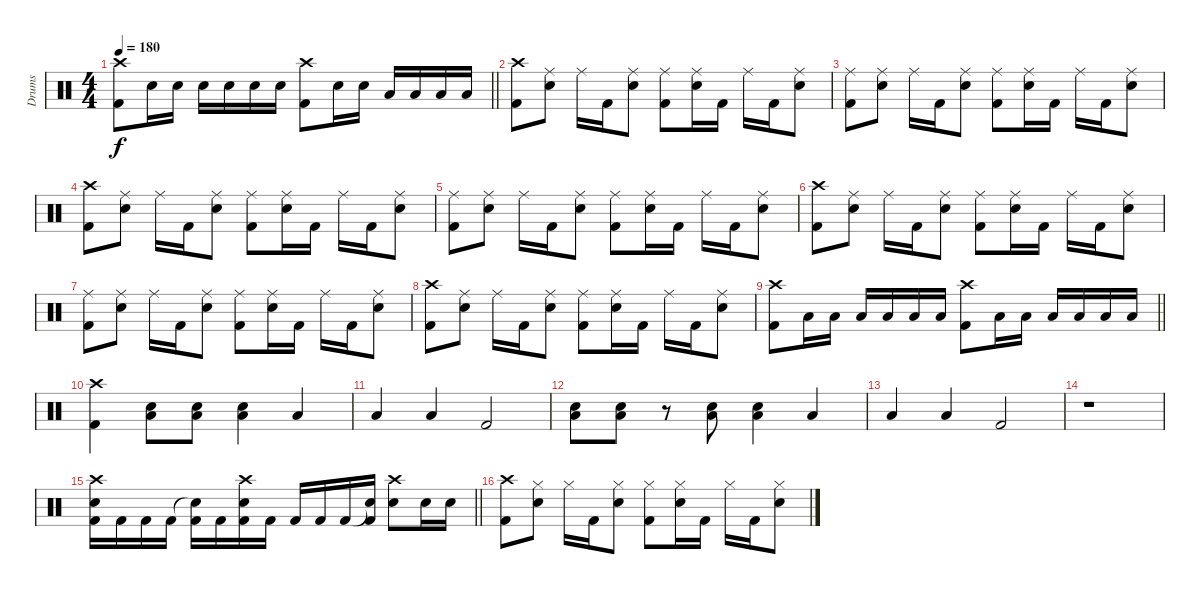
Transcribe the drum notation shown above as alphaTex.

\track ("Drums" "Drums") {instrument percussion}
\staff {score}
\articulation defaults
\ts (4 4)
\tempo 180
\clef neutral
\barLineRight lightlight
\ks c
("Crash high (hit)" "Kick (hit) 2").8{dy f} "Snare (hit) 2".16 "Snare (hit) 2".16 "Snare (hit) 2".16 "Snare (hit) 2".16 "Snare (hit) 2".16 "Snare (hit) 2".16 ("Crash high (hit)" "Kick (hit) 2").8 "Snare (hit) 2".16 "Snare (hit) 2".16 "Low Tom (hit)".16 "Low Tom (hit)".16 "Low Floor Tom (hit)".16 "Low Floor Tom (hit)".16 |
("Crash high (hit)" "Kick (hit) 2").8 ("Ride (middle)" "Snare (hit) 2").8 "Ride (middle)".16 "Kick (hit) 2".16 ("Ride (middle)" "Snare (hit) 2").8 ("Ride (middle)" "Kick (hit) 2").8 ("Ride (middle)" "Snare (hit) 2").16 "Kick (hit) 2".16 "Ride (middle)".16 "Kick (hit) 2".16 ("Ride (middle)" "Snare (hit) 2").8 |
("Ride (middle)" "Kick (hit) 2").8 ("Ride (middle)" "Snare (hit) 2").8 "Ride (middle)".16 "Kick (hit) 2".16 ("Ride (middle)" "Snare (hit) 2").8 ("Ride (middle)" "Kick (hit) 2").8 ("Ride (middle)" "Snare (hit) 2").16 "Kick (hit) 2".16 "Ride (middle)".16 "Kick (hit) 2".16 ("Ride (middle)" "Snare (hit) 2").8 |
("Crash high (hit)" "Kick (hit) 2").8 ("Ride (middle)" "Snare (hit) 2").8 "Ride (middle)".16 "Kick (hit) 2".16 ("Ride (middle)" "Snare (hit) 2").8 ("Ride (middle)" "Kick (hit) 2").8 ("Ride (middle)" "Snare (hit) 2").16 "Kick (hit) 2".16 "Ride (middle)".16 "Kick (hit) 2".16 ("Ride (middle)" "Snare (hit) 2").8 |
("Ride (middle)" "Kick (hit) 2").8 ("Ride (middle)" "Snare (hit) 2").8 "Ride (middle)".16 "Kick (hit) 2".16 ("Ride (middle)" "Snare (hit) 2").8 ("Ride (middle)" "Kick (hit) 2").8 ("Ride (middle)" "Snare (hit) 2").16 "Kick (hit) 2".16 "Ride (middle)".16 "Kick (hit) 2".16 ("Ride (middle)" "Snare (hit) 2").8 |
("Crash high (hit)" "Kick (hit) 2").8 ("Ride (middle)" "Snare (hit) 2").8 "Ride (middle)".16 "Kick (hit) 2".16 ("Ride (middle)" "Snare (hit) 2").8 ("Ride (middle)" "Kick (hit) 2").8 ("Ride (middle)" "Snare (hit) 2").16 "Kick (hit) 2".16 "Ride (middle)".16 "Kick (hit) 2".16 ("Ride (middle)" "Snare (hit) 2").8 |
("Ride (middle)" "Kick (hit) 2").8 ("Ride (middle)" "Snare (hit) 2").8 "Ride (middle)".16 "Kick (hit) 2".16 ("Ride (middle)" "Snare (hit) 2").8 ("Ride (middle)" "Kick (hit) 2").8 ("Ride (middle)" "Snare (hit) 2").16 "Kick (hit) 2".16 "Ride (middle)".16 "Kick (hit) 2".16 ("Ride (middle)" "Snare (hit) 2").8 |
("Crash high (hit)" "Kick (hit) 2").8 ("Ride (middle)" "Snare (hit) 2").8 "Ride (middle)".16 "Kick (hit) 2".16 ("Ride (middle)" "Snare (hit) 2").8 ("Ride (middle)" "Kick (hit) 2").8 ("Ride (middle)" "Snare (hit) 2").16 "Kick (hit) 2".16 "Ride (middle)".16 "Kick (hit) 2".16 ("Ride (middle)" "Snare (hit) 2").8 |
\barLineRight lightlight
("Crash high (hit)" "Kick (hit) 2").8 "Low Tom (hit)".16 "Low Tom (hit)".16 "Low Tom (hit)".16 "Low Tom (hit)".16 "Low Tom (hit)".16 "Low Tom (hit)".16 ("Crash high (hit)" "Kick (hit) 2").8 "Low Floor Tom (hit)".16 "Low Floor Tom (hit)".16 "Low Floor Tom (hit)".16 "Low Floor Tom (hit)".16 "Low Floor Tom (hit)".16 "Low Floor Tom (hit)".16 |
("Crash high (hit)" "Kick (hit) 2").4 ("Snare (hit) 2" "Low Floor Tom (hit)").8 ("Snare (hit) 2" "Low Floor Tom (hit)").8 ("Snare (hit) 2" "Low Floor Tom (hit)").4 "Low Tom (hit)".4 |
"Low Tom (hit)".4 "Low Floor Tom (hit)".4 "Kick (hit) 2".2 |
("Snare (hit) 2" "Low Floor Tom (hit)").8 ("Snare (hit) 2" "Low Floor Tom (hit)").8 r.8 ("Snare (hit) 2" "Low Floor Tom (hit)").8 ("Snare (hit) 2" "Low Floor Tom (hit)").4 "Low Floor Tom (hit)".4 |
"Low Tom (hit)".4 "Low Floor Tom (hit)".4 "Kick (hit) 2".2 |
r.1 |
\barLineRight lightlight
("Crash high (hit)" "Snare (hit) 2" "Kick (hit) 2").16 "Kick (hit) 2".16 "Kick (hit) 2".16 "Kick (hit) 2".16 ("Snare (hit)"{t} "Kick (hit) 2").16 "Kick (hit) 2".16 ("Crash high (hit)" "Snare (hit) 2" "Kick (hit) 2").16 "Kick (hit) 2".16 "Kick (hit) 2".16 "Kick (hit) 2".16 "Kick (hit) 2".16 ("Snare (hit)"{t} "Kick (hit) 2").16 ("Crash high (hit)" "Snare (hit) 2").8 "Snare (hit) 2".16 "Snare (hit) 2".16 |
("Crash high (hit)" "Kick (hit) 2").8 ("Hi-Hat (closed)" "Snare (hit) 2").8 "Hi-Hat (closed)".16 "Kick (hit) 2".16 ("Hi-Hat (closed)" "Snare (hit) 2").8 ("Hi-Hat (closed)" "Kick (hit) 2").8 ("Hi-Hat (closed)" "Snare (hit) 2").16 "Kick (hit) 2".16 "Hi-Hat (closed)".16 "Kick (hit) 2".16 ("Hi-Hat (closed)" "Snare (hit) 2").8
